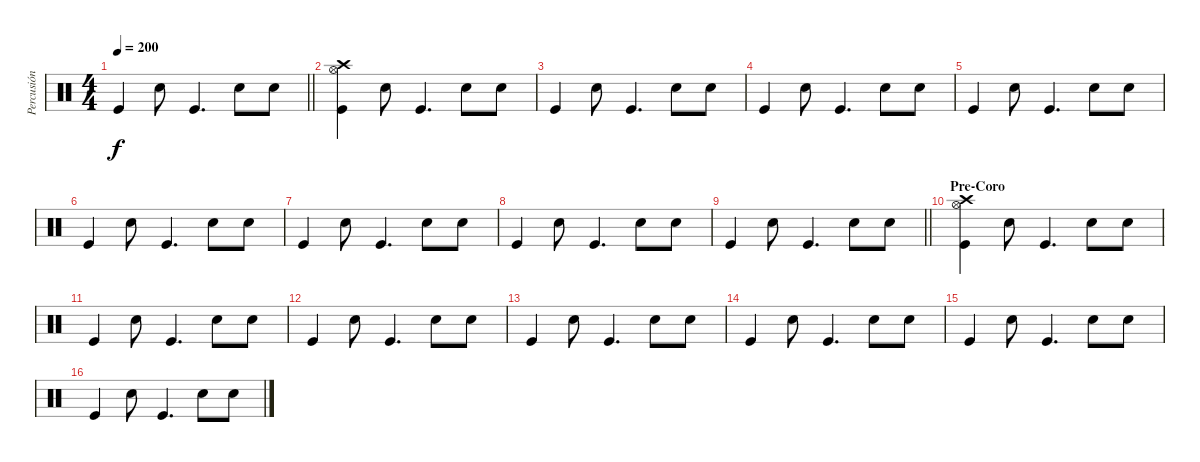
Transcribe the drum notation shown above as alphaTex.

\track ("Percusión" "Percusión") {instrument percussion}
\staff {score}
\articulation defaults
\ts (4 4)
\tempo 200
\clef neutral
\barLineRight lightlight
\ks c "Kick (hit)".4{dy f} "Snare (hit) 2".8 "Kick (hit)".4{d} "Snare (hit) 2".8 "Snare (hit) 2".8
|
\section ("" "")
("Hi-Hat (open)" "Crash high (hit)" "Kick (hit)").4 "Snare (hit) 2".8 "Kick (hit)".4{d} "Snare (hit) 2".8 "Snare (hit) 2".8 |
"Kick (hit)".4 "Snare (hit) 2".8 "Kick (hit)".4{d} "Snare (hit) 2".8 "Snare (hit) 2".8 |
"Kick (hit)".4 "Snare (hit) 2".8 "Kick (hit)".4{d} "Snare (hit) 2".8 "Snare (hit) 2".8 |
"Kick (hit)".4 "Snare (hit) 2".8 "Kick (hit)".4{d} "Snare (hit) 2".8 "Snare (hit) 2".8 |
"Kick (hit)".4 "Snare (hit) 2".8 "Kick (hit)".4{d} "Snare (hit) 2".8 "Snare (hit) 2".8 |
"Kick (hit)".4 "Snare (hit) 2".8 "Kick (hit)".4{d} "Snare (hit) 2".8 "Snare (hit) 2".8 |
"Kick (hit)".4 "Snare (hit) 2".8 "Kick (hit)".4{d} "Snare (hit) 2".8 "Snare (hit) 2".8 |
\barLineRight lightlight "Kick (hit)".4 "Snare (hit) 2".8 "Kick (hit)".4{d} "Snare (hit) 2".8 "Snare (hit) 2".8
|
\section ("" "Pre-Coro")
("Hi-Hat (open)" "Crash high (hit)" "Kick (hit)").4 "Snare (hit) 2".8 "Kick (hit)".4{d} "Snare (hit) 2".8 "Snare (hit) 2".8 |
"Kick (hit)".4 "Snare (hit) 2".8 "Kick (hit)".4{d} "Snare (hit) 2".8 "Snare (hit) 2".8 |
"Kick (hit)".4 "Snare (hit) 2".8 "Kick (hit)".4{d} "Snare (hit) 2".8 "Snare (hit) 2".8 |
"Kick (hit)".4 "Snare (hit) 2".8 "Kick (hit)".4{d} "Snare (hit) 2".8 "Snare (hit) 2".8 |
"Kick (hit)".4 "Snare (hit) 2".8 "Kick (hit)".4{d} "Snare (hit) 2".8 "Snare (hit) 2".8 |
"Kick (hit)".4 "Snare (hit) 2".8 "Kick (hit)".4{d} "Snare (hit) 2".8 "Snare (hit) 2".8 |
"Kick (hit)".4 "Snare (hit) 2".8 "Kick (hit)".4{d} "Snare (hit) 2".8 "Snare (hit) 2".8
